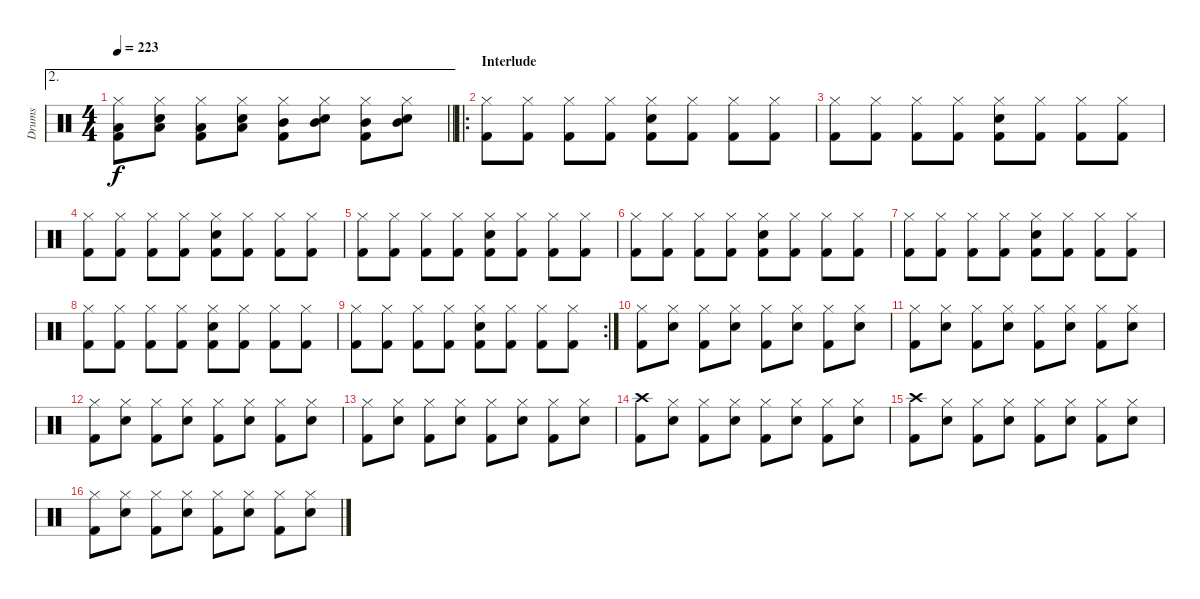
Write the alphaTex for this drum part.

\track ("Drums" "Drums") {instrument percussion}
\staff {score}
\articulation defaults
\ae 2
\ts (4 4)
\tempo 223
\clef neutral
\barLineRight lightlight
\ks c
("Hi-Hat (closed)" "Low Tom (hit)" "Kick (hit) 2").8{dy f} ("Hi-Hat (closed)" "Low Tom (hit)" "Snare (hit) 2").8 ("Hi-Hat (closed)" "Low Tom (hit)" "Kick (hit) 2").8 ("Hi-Hat (closed)" "Low Tom (hit)" "Snare (hit) 2").8 ("Hi-Hat (closed)" "Mid Tom (hit)" "Kick (hit) 2").8 ("Hi-Hat (closed)" "Mid Tom (hit)" "Snare (hit) 2").8 ("Hi-Hat (closed)" "Mid Tom (hit)" "Kick (hit) 2").8 ("Hi-Hat (closed)" "Mid Tom (hit)" "Snare (hit) 2").8 |
\ro
\section ("" "Interlude")
("Hi-Hat (closed)" "Kick (hit) 2").8 ("Hi-Hat (closed)" "Kick (hit) 2").8 ("Hi-Hat (closed)" "Kick (hit) 2").8 ("Hi-Hat (closed)" "Kick (hit) 2").8 ("Hi-Hat (closed)" "Snare (hit) 2" "Kick (hit) 2").8 ("Hi-Hat (closed)" "Kick (hit) 2").8 ("Hi-Hat (closed)" "Kick (hit) 2").8 ("Hi-Hat (closed)" "Kick (hit) 2").8 |
("Hi-Hat (closed)" "Kick (hit) 2").8 ("Hi-Hat (closed)" "Kick (hit) 2").8 ("Hi-Hat (closed)" "Kick (hit) 2").8 ("Hi-Hat (closed)" "Kick (hit) 2").8 ("Hi-Hat (closed)" "Snare (hit) 2" "Kick (hit) 2").8 ("Hi-Hat (closed)" "Kick (hit) 2").8 ("Hi-Hat (closed)" "Kick (hit) 2").8 ("Hi-Hat (closed)" "Kick (hit) 2").8 |
("Hi-Hat (closed)" "Kick (hit) 2").8 ("Hi-Hat (closed)" "Kick (hit) 2").8 ("Hi-Hat (closed)" "Kick (hit) 2").8 ("Hi-Hat (closed)" "Kick (hit) 2").8 ("Hi-Hat (closed)" "Snare (hit) 2" "Kick (hit) 2").8 ("Hi-Hat (closed)" "Kick (hit) 2").8 ("Hi-Hat (closed)" "Kick (hit) 2").8 ("Hi-Hat (closed)" "Kick (hit) 2").8 |
("Hi-Hat (closed)" "Kick (hit) 2").8 ("Hi-Hat (closed)" "Kick (hit) 2").8 ("Hi-Hat (closed)" "Kick (hit) 2").8 ("Hi-Hat (closed)" "Kick (hit) 2").8 ("Hi-Hat (closed)" "Snare (hit) 2" "Kick (hit) 2").8 ("Hi-Hat (closed)" "Kick (hit) 2").8 ("Hi-Hat (closed)" "Kick (hit) 2").8 ("Hi-Hat (closed)" "Kick (hit) 2").8 |
("Hi-Hat (closed)" "Kick (hit) 2").8 ("Hi-Hat (closed)" "Kick (hit) 2").8 ("Hi-Hat (closed)" "Kick (hit) 2").8 ("Hi-Hat (closed)" "Kick (hit) 2").8 ("Hi-Hat (closed)" "Snare (hit) 2" "Kick (hit) 2").8 ("Hi-Hat (closed)" "Kick (hit) 2").8 ("Hi-Hat (closed)" "Kick (hit) 2").8 ("Hi-Hat (closed)" "Kick (hit) 2").8 |
("Hi-Hat (closed)" "Kick (hit) 2").8 ("Hi-Hat (closed)" "Kick (hit) 2").8 ("Hi-Hat (closed)" "Kick (hit) 2").8 ("Hi-Hat (closed)" "Kick (hit) 2").8 ("Hi-Hat (closed)" "Snare (hit) 2" "Kick (hit) 2").8 ("Hi-Hat (closed)" "Kick (hit) 2").8 ("Hi-Hat (closed)" "Kick (hit) 2").8 ("Hi-Hat (closed)" "Kick (hit) 2").8 |
("Hi-Hat (closed)" "Kick (hit) 2").8 ("Hi-Hat (closed)" "Kick (hit) 2").8 ("Hi-Hat (closed)" "Kick (hit) 2").8 ("Hi-Hat (closed)" "Kick (hit) 2").8 ("Hi-Hat (closed)" "Snare (hit) 2" "Kick (hit) 2").8 ("Hi-Hat (closed)" "Kick (hit) 2").8 ("Hi-Hat (closed)" "Kick (hit) 2").8 ("Hi-Hat (closed)" "Kick (hit) 2").8 |
\rc 2
("Hi-Hat (closed)" "Kick (hit) 2").8 ("Hi-Hat (closed)" "Kick (hit) 2").8 ("Hi-Hat (closed)" "Kick (hit) 2").8 ("Hi-Hat (closed)" "Kick (hit) 2").8 ("Hi-Hat (closed)" "Snare (hit) 2" "Kick (hit) 2").8 ("Hi-Hat (closed)" "Kick (hit) 2").8 ("Hi-Hat (closed)" "Kick (hit) 2").8 ("Hi-Hat (closed)" "Kick (hit) 2").8 |
("Hi-Hat (closed)" "Kick (hit) 2").8 ("Hi-Hat (closed)" "Snare (hit) 2").8 ("Hi-Hat (closed)" "Kick (hit) 2").8 ("Hi-Hat (closed)" "Snare (hit) 2").8 ("Hi-Hat (closed)" "Kick (hit) 2").8 ("Hi-Hat (closed)" "Snare (hit) 2").8 ("Hi-Hat (closed)" "Kick (hit) 2").8 ("Hi-Hat (closed)" "Snare (hit) 2").8 |
("Hi-Hat (closed)" "Kick (hit) 2").8 ("Hi-Hat (closed)" "Snare (hit) 2").8 ("Hi-Hat (closed)" "Kick (hit) 2").8 ("Hi-Hat (closed)" "Snare (hit) 2").8 ("Hi-Hat (closed)" "Kick (hit) 2").8 ("Hi-Hat (closed)" "Snare (hit) 2").8 ("Hi-Hat (closed)" "Kick (hit) 2").8 ("Hi-Hat (closed)" "Snare (hit) 2").8 |
("Hi-Hat (closed)" "Kick (hit) 2").8 ("Hi-Hat (closed)" "Snare (hit) 2").8 ("Hi-Hat (closed)" "Kick (hit) 2").8 ("Hi-Hat (closed)" "Snare (hit) 2").8 ("Hi-Hat (closed)" "Kick (hit) 2").8 ("Hi-Hat (closed)" "Snare (hit) 2").8 ("Hi-Hat (closed)" "Kick (hit) 2").8 ("Hi-Hat (closed)" "Snare (hit) 2").8 |
("Hi-Hat (closed)" "Kick (hit) 2").8 ("Hi-Hat (closed)" "Snare (hit) 2").8 ("Hi-Hat (closed)" "Kick (hit) 2").8 ("Hi-Hat (closed)" "Snare (hit) 2").8 ("Hi-Hat (closed)" "Kick (hit) 2").8 ("Hi-Hat (closed)" "Snare (hit) 2").8 ("Hi-Hat (closed)" "Kick (hit) 2").8 ("Hi-Hat (closed)" "Snare (hit) 2").8 |
("Crash high (hit)" "Kick (hit) 2").8 ("Hi-Hat (closed)" "Snare (hit) 2").8 ("Hi-Hat (closed)" "Kick (hit) 2").8 ("Hi-Hat (closed)" "Snare (hit) 2").8 ("Hi-Hat (closed)" "Kick (hit) 2").8 ("Hi-Hat (closed)" "Snare (hit) 2").8 ("Hi-Hat (closed)" "Kick (hit) 2").8 ("Hi-Hat (closed)" "Snare (hit) 2").8 |
("Crash high (hit)" "Kick (hit) 2").8 ("Hi-Hat (closed)" "Snare (hit) 2").8 ("Hi-Hat (closed)" "Kick (hit) 2").8 ("Hi-Hat (closed)" "Snare (hit) 2").8 ("Hi-Hat (closed)" "Kick (hit) 2").8 ("Hi-Hat (closed)" "Snare (hit) 2").8 ("Hi-Hat (closed)" "Kick (hit) 2").8 ("Hi-Hat (closed)" "Snare (hit) 2").8 |
("Hi-Hat (closed)" "Kick (hit) 2").8 ("Hi-Hat (closed)" "Snare (hit) 2").8 ("Hi-Hat (closed)" "Kick (hit) 2").8 ("Hi-Hat (closed)" "Snare (hit) 2").8 ("Hi-Hat (closed)" "Kick (hit) 2").8 ("Hi-Hat (closed)" "Snare (hit) 2").8 ("Hi-Hat (closed)" "Kick (hit) 2").8 ("Hi-Hat (closed)" "Snare (hit) 2").8
